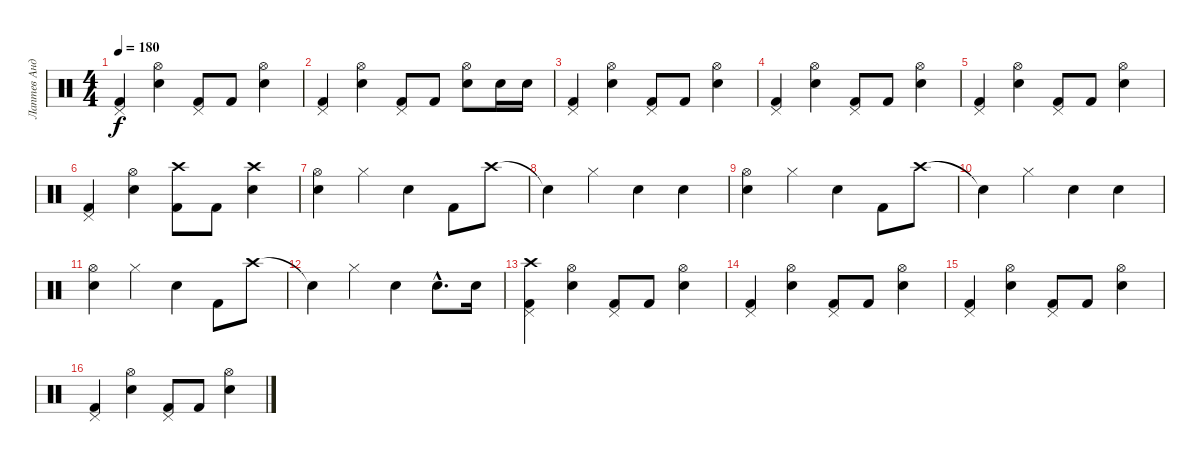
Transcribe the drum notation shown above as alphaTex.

\track ("Лаптев Андрей" "Лаптев Анд") {instrument percussion}
\staff {score}
\articulation defaults
\ts (4 4)
\tempo 180
\clef neutral
\ks c
("Kick (hit) 2" "Pedal Hi-Hat (hit)").4{dy f} ("Snare (hit) 2" "Hi-Hat (open)").4 ("Kick (hit) 2" "Pedal Hi-Hat (hit)").8 "Kick (hit) 2".8 ("Snare (hit) 2" "Hi-Hat (open)").4 |
("Kick (hit) 2" "Pedal Hi-Hat (hit)").4 ("Snare (hit) 2" "Hi-Hat (open)").4 ("Kick (hit) 2" "Pedal Hi-Hat (hit)").8 "Kick (hit) 2".8 ("Snare (hit) 2" "Hi-Hat (open)").8 "Snare (hit) 2".16 "Snare (hit) 2".16 |
("Kick (hit) 2" "Pedal Hi-Hat (hit)").4 ("Snare (hit) 2" "Hi-Hat (open)").4 ("Kick (hit) 2" "Pedal Hi-Hat (hit)").8 "Kick (hit) 2".8 ("Snare (hit) 2" "Hi-Hat (open)").4 |
("Kick (hit) 2" "Pedal Hi-Hat (hit)").4 ("Snare (hit) 2" "Hi-Hat (open)").4 ("Kick (hit) 2" "Pedal Hi-Hat (hit)").8 "Kick (hit) 2".8 ("Snare (hit) 2" "Hi-Hat (open)").4 |
("Kick (hit) 2" "Pedal Hi-Hat (hit)").4 ("Snare (hit) 2" "Hi-Hat (open)").4 ("Kick (hit) 2" "Pedal Hi-Hat (hit)").8 "Kick (hit) 2".8 ("Snare (hit) 2" "Hi-Hat (open)").4 |
("Kick (hit) 2" "Pedal Hi-Hat (hit)").4 ("Snare (hit) 2" "Hi-Hat (open)").4 ("Kick (hit) 2" "Crash high (hit)").8 "Kick (hit) 2".8 ("Snare (hit) 2" "Crash high (hit)").4 |
("Snare (hit) 2" "Hi-Hat (open)").4 "Hi-Hat (closed)".4 "Snare (hit) 2".4 "Kick (hit) 2".8 "Crash high (hit)".8 |
"Snare (hit)"{t}.4 "Hi-Hat (closed)".4 "Snare (hit) 2".4 "Snare (hit) 2".4 |
("Snare (hit) 2" "Hi-Hat (open)").4 "Hi-Hat (closed)".4 "Snare (hit) 2".4 "Kick (hit) 2".8 "Crash high (hit)".8 |
"Snare (hit)"{t}.4 "Hi-Hat (closed)".4 "Snare (hit) 2".4 "Snare (hit) 2".4 |
("Snare (hit) 2" "Hi-Hat (open)").4 "Hi-Hat (closed)".4 "Snare (hit) 2".4 "Kick (hit) 2".8 "Crash high (hit)".8 |
"Snare (hit)"{t}.4 "Hi-Hat (closed)".4 "Snare (hit) 2".4 "Snare (hit) 2"{hac}.8{d} "Snare (hit) 2".16 |
("Kick (hit) 2" "Crash high (hit)" "Pedal Hi-Hat (hit)").4 ("Snare (hit) 2" "Hi-Hat (open)").4 ("Kick (hit) 2" "Pedal Hi-Hat (hit)").8 "Kick (hit) 2".8 ("Snare (hit) 2" "Hi-Hat (open)").4 |
("Kick (hit) 2" "Pedal Hi-Hat (hit)").4 ("Snare (hit) 2" "Hi-Hat (open)").4 ("Kick (hit) 2" "Pedal Hi-Hat (hit)").8 "Kick (hit) 2".8 ("Snare (hit) 2" "Hi-Hat (open)").4 |
("Kick (hit) 2" "Pedal Hi-Hat (hit)").4 ("Snare (hit) 2" "Hi-Hat (open)").4 ("Kick (hit) 2" "Pedal Hi-Hat (hit)").8 "Kick (hit) 2".8 ("Snare (hit) 2" "Hi-Hat (open)").4 |
("Kick (hit) 2" "Pedal Hi-Hat (hit)").4 ("Snare (hit) 2" "Hi-Hat (open)").4 ("Kick (hit) 2" "Pedal Hi-Hat (hit)").8 "Kick (hit) 2".8 ("Snare (hit) 2" "Hi-Hat (open)").4
